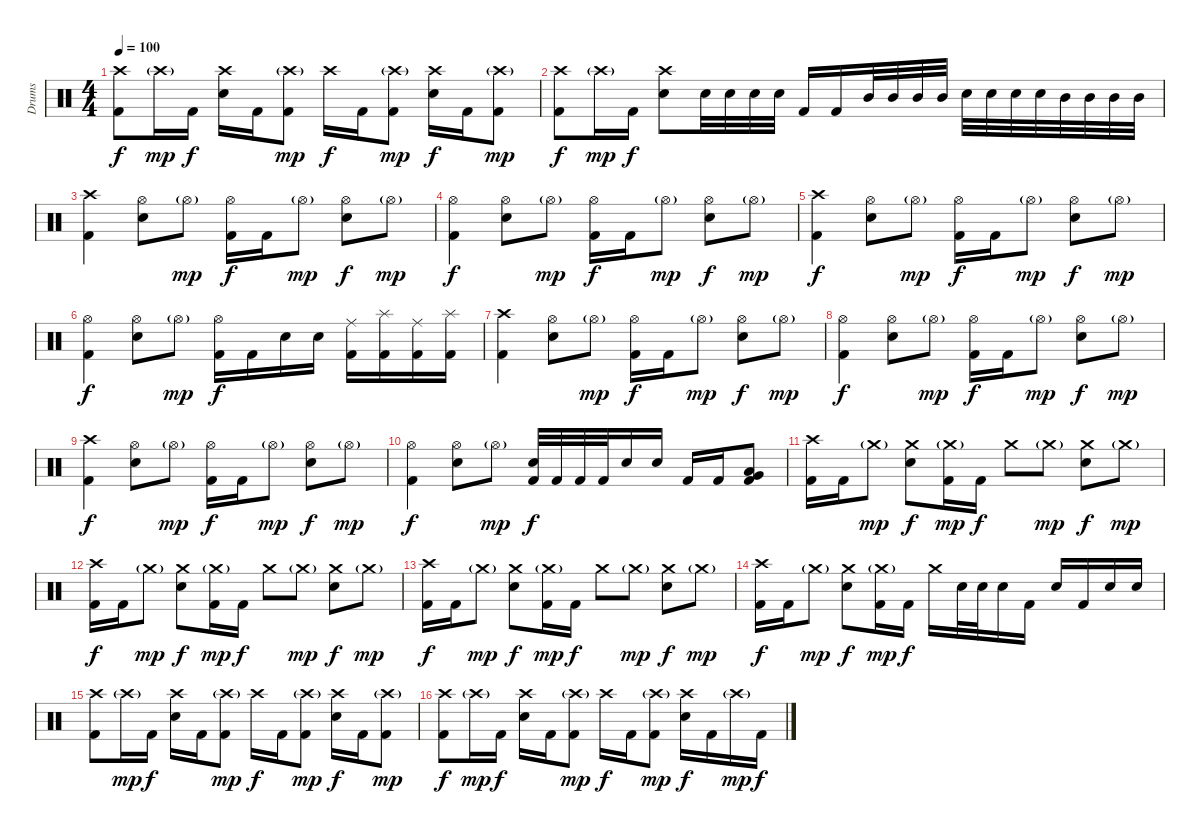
\track ("Drums" "Drums") {instrument percussion}
\staff {score}
\articulation defaults
\ts (4 4)
\tempo 100
\clef neutral
\ks c
("Crash high (hit)" "Kick (hit) 2").8{dy f} "Crash high (hit)"{g}.16{dy mp} "Kick (hit) 2".16{dy f} ("Crash high (hit)" "Snare (hit) 2").16 "Kick (hit) 2".16 ("Crash high (hit)"{g} "Kick (hit) 2").8{dy mp} "Crash high (hit)".16{dy f} "Kick (hit) 2".16 ("Crash high (hit)"{g} "Kick (hit) 2").8{dy mp} ("Crash high (hit)" "Snare (hit) 2").16{dy f} "Kick (hit) 2".16 ("Crash high (hit)"{g} "Kick (hit) 2").8{dy mp} |
("Crash high (hit)" "Kick (hit) 2").8{dy f} "Crash high (hit)"{g}.16{dy mp} "Kick (hit) 2".16{dy f} ("Crash high (hit)" "Snare (hit) 2").8 "Snare (hit) 2".32 "Snare (hit) 2".32 "Snare (hit) 2".32 "Snare (hit) 2".32 "Kick (hit) 2".16 "Kick (hit) 2".16 "Mid Tom (hit)".32 "Mid Tom (hit)".32 "Mid Tom (hit)".32 "Mid Tom (hit)".32 "Snare (hit) 2".32 "Snare (hit) 2".32 "Snare (hit) 2".32 "Snare (hit) 2".32 "Mid Tom (hit)".32 "Mid Tom (hit)".32 "Mid Tom (hit)".32 "Mid Tom (hit)".32 |
("Crash high (hit)" "Kick (hit) 2").4 ("Hi-Hat (open)" "Snare (hit) 2").8 "Hi-Hat (open)"{g}.8{dy mp} ("Hi-Hat (open)" "Kick (hit) 2").16{dy f} "Kick (hit) 2".16 "Hi-Hat (open)"{g}.8{dy mp} ("Hi-Hat (open)" "Snare (hit) 2").8{dy f} "Hi-Hat (open)"{g}.8{dy mp} |
("Hi-Hat (open)" "Kick (hit) 2").4{dy f} ("Hi-Hat (open)" "Snare (hit) 2").8 "Hi-Hat (open)"{g}.8{dy mp} ("Hi-Hat (open)" "Kick (hit) 2").16{dy f} "Kick (hit) 2".16 "Hi-Hat (open)"{g}.8{dy mp} ("Hi-Hat (open)" "Snare (hit) 2").8{dy f} "Hi-Hat (open)"{g}.8{dy mp} |
("Crash high (hit)" "Kick (hit) 2").4{dy f} ("Hi-Hat (open)" "Snare (hit) 2").8 "Hi-Hat (open)"{g}.8{dy mp} ("Hi-Hat (open)" "Kick (hit) 2").16{dy f} "Kick (hit) 2".16 "Hi-Hat (open)"{g}.8{dy mp} ("Hi-Hat (open)" "Snare (hit) 2").8{dy f} "Hi-Hat (open)"{g}.8{dy mp} |
("Hi-Hat (open)" "Kick (hit) 2").4{dy f} ("Hi-Hat (open)" "Snare (hit) 2").8 "Hi-Hat (open)"{g}.8{dy mp} ("Hi-Hat (open)" "Kick (hit) 2").16{dy f} "Kick (hit) 2".16 "Snare (hit) 2".16 "Snare (hit) 2".16 ("Ride (middle)" "Kick (hit) 2").16 ("Splash (hit)" "Kick (hit) 2").16 ("Ride (middle)" "Kick (hit) 2").16 ("Splash (hit)" "Kick (hit) 2").16 |
("Crash high (hit)" "Kick (hit) 2").4 ("Hi-Hat (open)" "Snare (hit) 2").8 "Hi-Hat (open)"{g}.8{dy mp} ("Hi-Hat (open)" "Kick (hit) 2").16{dy f} "Kick (hit) 2".16 "Hi-Hat (open)"{g}.8{dy mp} ("Hi-Hat (open)" "Snare (hit) 2").8{dy f} "Hi-Hat (open)"{g}.8{dy mp} |
("Hi-Hat (open)" "Kick (hit) 2").4{dy f} ("Hi-Hat (open)" "Snare (hit) 2").8 "Hi-Hat (open)"{g}.8{dy mp} ("Hi-Hat (open)" "Kick (hit) 2").16{dy f} "Kick (hit) 2".16 "Hi-Hat (open)"{g}.8{dy mp} ("Hi-Hat (open)" "Snare (hit) 2").8{dy f} "Hi-Hat (open)"{g}.8{dy mp} |
("Crash high (hit)" "Kick (hit) 2").4{dy f} ("Hi-Hat (open)" "Snare (hit) 2").8 "Hi-Hat (open)"{g}.8{dy mp} ("Hi-Hat (open)" "Kick (hit) 2").16{dy f} "Kick (hit) 2".16 "Hi-Hat (open)"{g}.8{dy mp} ("Hi-Hat (open)" "Snare (hit) 2").8{dy f} "Hi-Hat (open)"{g}.8{dy mp} |
("Hi-Hat (open)" "Kick (hit) 2").4{dy f} ("Hi-Hat (open)" "Snare (hit) 2").8 "Hi-Hat (open)"{g}.8{dy mp} ("Snare (hit) 2" "Kick (hit) 2").32{dy f} "Kick (hit) 2".32 "Kick (hit) 2".32 "Kick (hit) 2".32 "Snare (hit) 2".16 "Snare (hit) 2".16 "Kick (hit) 2".16 "Kick (hit) 2".16 ("Low Tom (hit)" "Very Low Tom (hit)" "Kick (hit) 2").8 |
("Crash high (hit)" "Kick (hit) 2").16 "Kick (hit) 2".16 "Crash medium (hit)"{g}.8{dy mp} ("Crash medium (hit)" "Snare (hit) 2").8{dy f} ("Crash medium (hit)"{g} "Kick (hit) 2").16{dy mp} "Kick (hit) 2".16{dy f} "Crash medium (hit)".8 "Crash medium (hit)"{g}.8{dy mp} ("Crash medium (hit)" "Snare (hit) 2").8{dy f} "Crash medium (hit)"{g}.8{dy mp} |
("Crash high (hit)" "Kick (hit) 2").16{dy f} "Kick (hit) 2".16 "Crash medium (hit)"{g}.8{dy mp} ("Crash medium (hit)" "Snare (hit) 2").8{dy f} ("Crash medium (hit)"{g} "Kick (hit) 2").16{dy mp} "Kick (hit) 2".16{dy f} "Crash medium (hit)".8 "Crash medium (hit)"{g}.8{dy mp} ("Crash medium (hit)" "Snare (hit) 2").8{dy f} "Crash medium (hit)"{g}.8{dy mp} |
("Crash high (hit)" "Kick (hit) 2").16{dy f} "Kick (hit) 2".16 "Crash medium (hit)"{g}.8{dy mp} ("Crash medium (hit)" "Snare (hit) 2").8{dy f} ("Crash medium (hit)"{g} "Kick (hit) 2").16{dy mp} "Kick (hit) 2".16{dy f} "Crash medium (hit)".8 "Crash medium (hit)"{g}.8{dy mp} ("Crash medium (hit)" "Snare (hit) 2").8{dy f} "Crash medium (hit)"{g}.8{dy mp} |
("Crash high (hit)" "Kick (hit) 2").16{dy f} "Kick (hit) 2".16 "Crash medium (hit)"{g}.8{dy mp} ("Crash medium (hit)" "Snare (hit) 2").8{dy f} ("Crash medium (hit)"{g} "Kick (hit) 2").16{dy mp} "Kick (hit) 2".16{dy f} "Crash medium (hit)".16 "Snare (hit) 2".32 "Snare (hit) 2".32 "Snare (hit) 2".16 "Kick (hit) 2".16 "Snare (hit) 2".16 "Kick (hit) 2".16 "Snare (hit) 2".16 "Snare (hit) 2".16 |
("Crash high (hit)" "Kick (hit) 2").8 "Crash high (hit)"{g}.16{dy mp} "Kick (hit) 2".16{dy f} ("Crash high (hit)" "Snare (hit) 2").16 "Kick (hit) 2".16 ("Crash high (hit)"{g} "Kick (hit) 2").8{dy mp} "Crash high (hit)".16{dy f} "Kick (hit) 2".16 ("Crash high (hit)"{g} "Kick (hit) 2").8{dy mp} ("Crash high (hit)" "Snare (hit) 2").16{dy f} "Kick (hit) 2".16 ("Crash high (hit)"{g} "Kick (hit) 2").8{dy mp} |
("Crash high (hit)" "Kick (hit) 2").8{dy f} "Crash high (hit)"{g}.16{dy mp} "Kick (hit) 2".16{dy f} ("Crash high (hit)" "Snare (hit) 2").16 "Kick (hit) 2".16 ("Crash high (hit)"{g} "Kick (hit) 2").8{dy mp} "Crash high (hit)".16{dy f} "Kick (hit) 2".16 ("Crash high (hit)"{g} "Kick (hit) 2").8{dy mp} ("Crash high (hit)" "Snare (hit) 2").16{dy f} "Kick (hit) 2".16 "Crash high (hit)"{g}.16{dy mp} "Kick (hit) 2".16{dy f}
